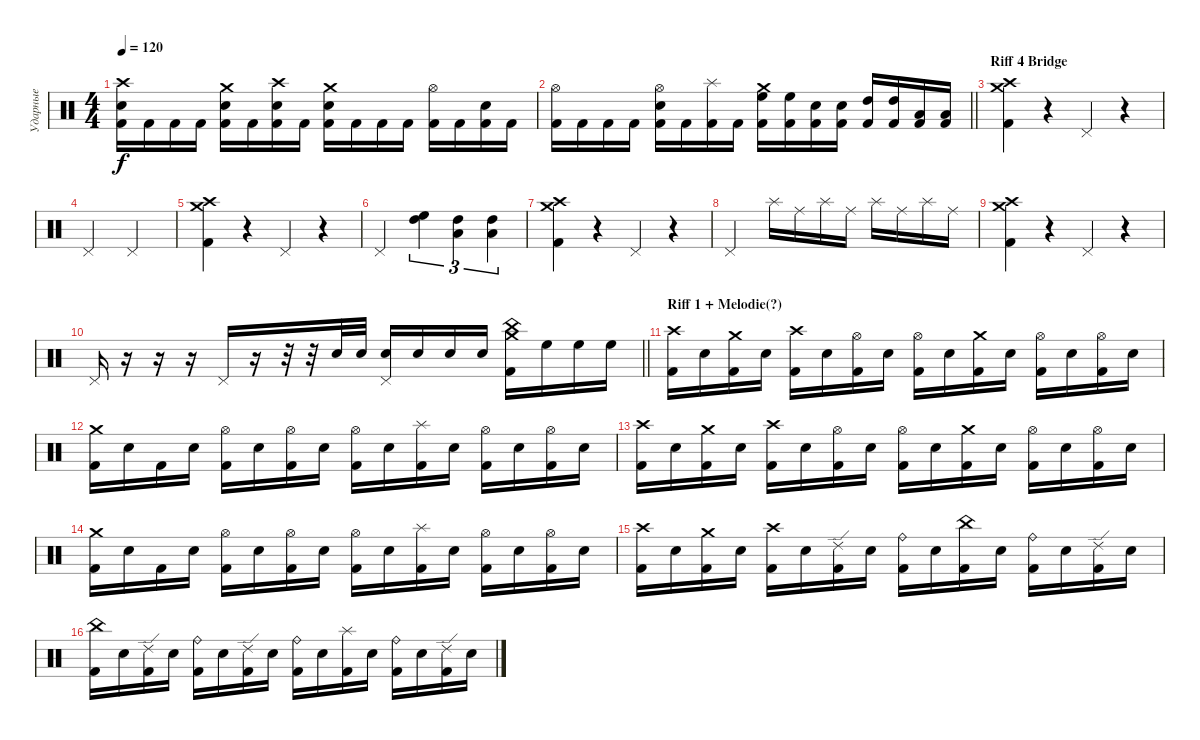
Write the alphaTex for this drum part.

\track ("Ударные" "Ударные") {instrument percussion}
\staff {score}
\articulation defaults
\ts (4 4)
\tempo 120
\clef neutral
\ks c
("Crash high (hit)" "Electric Snare (hit)" "Kick (hit) 2").16{dy f} "Kick (hit) 2".16 "Kick (hit) 2".16 "Kick (hit) 2".16 ("Crash medium (hit)" "Electric Snare (hit)" "Kick (hit) 2").16 "Kick (hit) 2".16 ("Crash high (hit)" "Electric Snare (hit)" "Kick (hit) 2").16 "Kick (hit) 2".16 ("Crash medium (hit)" "Electric Snare (hit)" "Kick (hit) 2").16 "Kick (hit) 2".16 "Kick (hit) 2".16 "Kick (hit) 2".16 ("Hi-Hat (open)" "Kick (hit) 2").16 "Kick (hit) 2".16 ("Electric Snare (hit)" "Kick (hit) 2").16 "Kick (hit) 2".16 |
\barLineRight lightlight
("Hi-Hat (open)" "Kick (hit) 2").16 "Kick (hit) 2".16 "Kick (hit) 2".16 "Kick (hit) 2".16 ("Hi-Hat (open)" "Electric Snare (hit)" "Kick (hit) 2").16 "Kick (hit) 2".16 ("Splash (hit)" "Kick (hit) 2").16 "Kick (hit) 2".16 ("Crash medium (hit)" "High Floor Tom (hit)" "Kick (hit) 2").16 ("High Floor Tom (hit)" "Kick (hit) 2").16 ("Electric Snare (hit)" "Kick (hit) 2").16 ("Electric Snare (hit)" "Kick (hit) 2").16 ("High Tom (hit)" "Kick (hit) 2").16 ("High Tom (hit)" "Kick (hit) 2").16 ("Low Tom (hit)" "Kick (hit) 2").16 ("Low Tom (hit)" "Kick (hit) 2").16 |
\section ("" "Riff 4 Bridge")
("Crash high (hit)" "Crash medium (hit)" "Kick (hit) 2").4 r.4 "Pedal Hi-Hat (hit)".4 r.4 |
"Pedal Hi-Hat (hit)".2 "Pedal Hi-Hat (hit)".2 |
("Crash high (hit)" "Crash medium (hit)" "Kick (hit) 2").4 r.4 "Pedal Hi-Hat (hit)".4 r.4 |
"Pedal Hi-Hat (hit)".2 ("High Floor Tom (hit)" "High Tom (hit)").4{tu (3 2)} ("Low Tom (hit)" "High Tom (hit)").4{tu (3 2)} ("Low Tom (hit)" "High Tom (hit)").4{tu (3 2)} |
("Crash high (hit)" "Crash medium (hit)" "Kick (hit) 2").4 r.4 "Pedal Hi-Hat (hit)".4 r.4 |
"Pedal Hi-Hat (hit)".2 "Splash (hit)".16 "Ride (middle)".16 "Splash (hit)".16 "Ride (middle)".16 "Splash (hit)".16 "Ride (middle)".16 "Splash (hit)".16 "Ride (middle)".16 |
("Crash high (hit)" "Crash medium (hit)" "Kick (hit) 2").4 r.4 "Pedal Hi-Hat (hit)".4 r.4 |
\barLineRight lightlight "Pedal Hi-Hat (hit)".16
r.16 r.16 r.16 "Pedal Hi-Hat (hit)".16 r.16 r.32 r.32 "Electric Snare (hit)".32 "Electric Snare (hit)".32 ("Pedal Hi-Hat (hit)" "Electric Snare (hit)").16 "Electric Snare (hit)".16 "Electric Snare (hit)".16 "Electric Snare (hit)".16 ("China (hit)" "Crash medium (hit)" "Kick (hit) 2").16 "High Floor Tom (hit)".16 "High Floor Tom (hit)".16 "High Floor Tom (hit)".16 |
\section ("" "Riff 1 + Melodie(?)")
("Crash high (hit)" "Kick (hit) 2").16 "Electric Snare (hit)".16 ("Crash medium (hit)" "Kick (hit) 2").16 "Electric Snare (hit)".16 ("Crash high (hit)" "Kick (hit) 2").16 "Electric Snare (hit)".16 ("Hi-Hat (open)" "Kick (hit) 2").16 "Electric Snare (hit)".16 ("Hi-Hat (open)" "Kick (hit) 2").16 "Electric Snare (hit)".16 ("Crash medium (hit)" "Kick (hit) 2").16 "Electric Snare (hit)".16 ("Hi-Hat (open)" "Kick (hit) 2").16 "Electric Snare (hit)".16 ("Hi-Hat (open)" "Kick (hit) 2").16 "Electric Snare (hit)".16 |
("Crash medium (hit)" "Kick (hit) 2").16 "Electric Snare (hit)".16 "Kick (hit) 2".16 "Electric Snare (hit)".16 ("Hi-Hat (open)" "Kick (hit) 2").16 "Electric Snare (hit)".16 ("Hi-Hat (open)" "Kick (hit) 2").16 "Electric Snare (hit)".16 ("Hi-Hat (open)" "Kick (hit) 2").16 "Electric Snare (hit)".16 ("Splash (hit)" "Kick (hit) 2").16 "Electric Snare (hit)".16 ("Hi-Hat (open)" "Kick (hit) 2").16 "Electric Snare (hit)".16 ("Hi-Hat (open)" "Kick (hit) 2").16 "Electric Snare (hit)".16 |
("Crash high (hit)" "Kick (hit) 2").16 "Electric Snare (hit)".16 ("Crash medium (hit)" "Kick (hit) 2").16 "Electric Snare (hit)".16 ("Crash high (hit)" "Kick (hit) 2").16 "Electric Snare (hit)".16 ("Hi-Hat (open)" "Kick (hit) 2").16 "Electric Snare (hit)".16 ("Hi-Hat (open)" "Kick (hit) 2").16 "Electric Snare (hit)".16 ("Crash medium (hit)" "Kick (hit) 2").16 "Electric Snare (hit)".16 ("Hi-Hat (open)" "Kick (hit) 2").16 "Electric Snare (hit)".16 ("Hi-Hat (open)" "Kick (hit) 2").16 "Electric Snare (hit)".16 |
("Crash medium (hit)" "Kick (hit) 2").16 "Electric Snare (hit)".16 "Kick (hit) 2".16 "Electric Snare (hit)".16 ("Hi-Hat (open)" "Kick (hit) 2").16 "Electric Snare (hit)".16 ("Hi-Hat (open)" "Kick (hit) 2").16 "Electric Snare (hit)".16 ("Hi-Hat (open)" "Kick (hit) 2").16 "Electric Snare (hit)".16 ("Splash (hit)" "Kick (hit) 2").16 "Electric Snare (hit)".16 ("Hi-Hat (open)" "Kick (hit) 2").16 "Electric Snare (hit)".16 ("Hi-Hat (open)" "Kick (hit) 2").16 "Electric Snare (hit)".16 |
("Crash high (hit)" "Kick (hit) 2").16 "Electric Snare (hit)".16 ("Crash medium (hit)" "Kick (hit) 2").16 "Electric Snare (hit)".16 ("Crash high (hit)" "Kick (hit) 2").16 "Electric Snare (hit)".16 ("Ride (edge) 2" "Kick (hit) 2").16 "Electric Snare (hit)".16 ("Ride (bell)" "Kick (hit) 2").16 "Electric Snare (hit)".16 ("China (hit)" "Kick (hit) 2").16 "Electric Snare (hit)".16 ("Ride (bell)" "Kick (hit) 2").16 "Electric Snare (hit)".16 ("Ride (edge) 2" "Kick (hit) 2").16 "Electric Snare (hit)".16 |
("China (hit)" "Kick (hit) 2").16 "Electric Snare (hit)".16 ("Ride (edge) 2" "Kick (hit) 2").16 "Electric Snare (hit)".16 ("Ride (bell)" "Kick (hit) 2").16 "Electric Snare (hit)".16 ("Ride (edge) 2" "Kick (hit) 2").16 "Electric Snare (hit)".16 ("Ride (bell)" "Kick (hit) 2").16 "Electric Snare (hit)".16 ("Splash (hit)" "Kick (hit) 2").16 "Electric Snare (hit)".16 ("Ride (bell)" "Kick (hit) 2").16 "Electric Snare (hit)".16 ("Ride (edge) 2" "Kick (hit) 2").16 "Electric Snare (hit)".16
